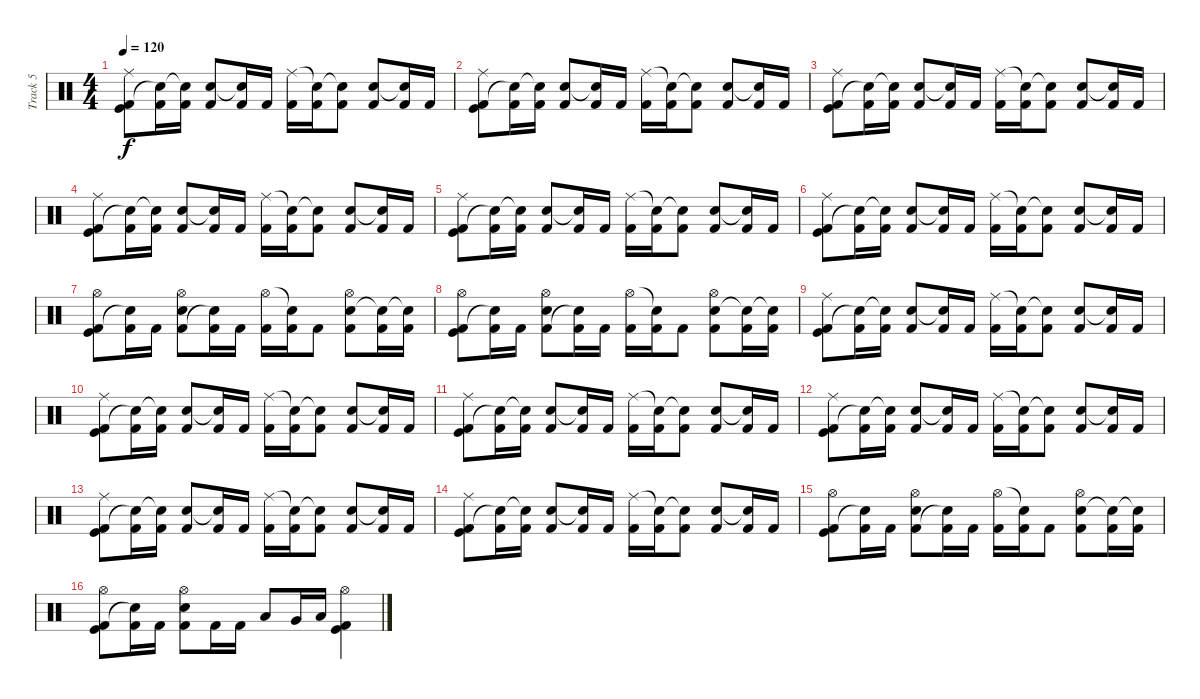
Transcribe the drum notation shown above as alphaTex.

\track ("Track 5" "Track 5") {instrument percussion}
\staff {score}
\articulation defaults
\ts (4 4)
\tempo 120
\clef neutral
\ks c
("Kick (hit)" "Kick (hit) 2" "Ride (middle)").8{dy f} ("Kick (hit) 2" "Snare (hit)"{t}).16 ("Kick (hit) 2" "Snare (hit)"{t}).16 ("Kick (hit) 2" "Snare (hit) 2").8 ("Kick (hit) 2" "Snare (hit)"{t}).16 "Kick (hit) 2".16 ("Kick (hit) 2" "Ride (middle)").16 ("Kick (hit) 2" "Snare (hit)"{t}).16 ("Kick (hit) 2" "Snare (hit)"{t}).8 ("Kick (hit) 2" "Snare (hit) 2").8 ("Kick (hit) 2" "Snare (hit)"{t}).16 "Kick (hit) 2".16 |
("Kick (hit)" "Kick (hit) 2" "Ride (middle)").8 ("Kick (hit) 2" "Snare (hit)"{t}).16 ("Kick (hit) 2" "Snare (hit)"{t}).16 ("Kick (hit) 2" "Snare (hit) 2").8 ("Kick (hit) 2" "Snare (hit)"{t}).16 "Kick (hit) 2".16 ("Kick (hit) 2" "Ride (middle)").16 ("Kick (hit) 2" "Snare (hit)"{t}).16 ("Kick (hit) 2" "Snare (hit)"{t}).8 ("Kick (hit) 2" "Snare (hit) 2").8 ("Kick (hit) 2" "Snare (hit)"{t}).16 "Kick (hit) 2".16 |
("Kick (hit)" "Kick (hit) 2" "Ride (middle)").8 ("Kick (hit) 2" "Snare (hit)"{t}).16 ("Kick (hit) 2" "Snare (hit)"{t}).16 ("Kick (hit) 2" "Snare (hit) 2").8 ("Kick (hit) 2" "Snare (hit)"{t}).16 "Kick (hit) 2".16 ("Kick (hit) 2" "Ride (middle)").16 ("Kick (hit) 2" "Snare (hit)"{t}).16 ("Kick (hit) 2" "Snare (hit)"{t}).8 ("Kick (hit) 2" "Snare (hit) 2").8 ("Kick (hit) 2" "Snare (hit)"{t}).16 "Kick (hit) 2".16 |
("Kick (hit)" "Kick (hit) 2" "Ride (middle)").8 ("Kick (hit) 2" "Snare (hit)"{t}).16 ("Kick (hit) 2" "Snare (hit)"{t}).16 ("Kick (hit) 2" "Snare (hit) 2").8 ("Kick (hit) 2" "Snare (hit)"{t}).16 "Kick (hit) 2".16 ("Kick (hit) 2" "Ride (middle)").16 ("Kick (hit) 2" "Snare (hit)"{t}).16 ("Kick (hit) 2" "Snare (hit)"{t}).8 ("Kick (hit) 2" "Snare (hit) 2").8 ("Kick (hit) 2" "Snare (hit)"{t}).16 "Kick (hit) 2".16 |
("Kick (hit)" "Kick (hit) 2" "Ride (middle)").8 ("Kick (hit) 2" "Snare (hit)"{t}).16 ("Kick (hit) 2" "Snare (hit)"{t}).16 ("Kick (hit) 2" "Snare (hit) 2").8 ("Kick (hit) 2" "Snare (hit)"{t}).16 "Kick (hit) 2".16 ("Kick (hit) 2" "Ride (middle)").16 ("Kick (hit) 2" "Snare (hit)"{t}).16 ("Kick (hit) 2" "Snare (hit)"{t}).8 ("Kick (hit) 2" "Snare (hit) 2").8 ("Kick (hit) 2" "Snare (hit)"{t}).16 "Kick (hit) 2".16 |
("Kick (hit)" "Kick (hit) 2" "Ride (middle)").8 ("Kick (hit) 2" "Snare (hit)"{t}).16 ("Kick (hit) 2" "Snare (hit)"{t}).16 ("Kick (hit) 2" "Snare (hit) 2").8 ("Kick (hit) 2" "Snare (hit)"{t}).16 "Kick (hit) 2".16 ("Kick (hit) 2" "Ride (middle)").16 ("Kick (hit) 2" "Snare (hit)"{t}).16 ("Kick (hit) 2" "Snare (hit)"{t}).8 ("Kick (hit) 2" "Snare (hit) 2").8 ("Kick (hit) 2" "Snare (hit)"{t}).16 "Kick (hit) 2".16 |
("Kick (hit)" "Kick (hit) 2" "Hi-Hat (open)").8 ("Kick (hit) 2" "Snare (hit)"{t}).16 "Kick (hit) 2".16 ("Snare (hit) 2" "Kick (hit) 2" "Hi-Hat (open)").8 ("Kick (hit) 2" "Snare (hit)"{t}).16 "Kick (hit) 2".16 ("Kick (hit) 2" "Hi-Hat (open)").16 ("Kick (hit) 2" "Snare (hit)"{t}).16 "Kick (hit) 2".8 ("Kick (hit) 2" "Snare (hit) 2" "Hi-Hat (open)").8 ("Kick (hit) 2" "Snare (hit)"{t}).16 ("Kick (hit) 2" "Snare (hit)"{t}).16 |
("Kick (hit)" "Kick (hit) 2" "Hi-Hat (open)").8 ("Kick (hit) 2" "Snare (hit)"{t}).16 "Kick (hit) 2".16 ("Snare (hit) 2" "Kick (hit) 2" "Hi-Hat (open)").8 ("Kick (hit) 2" "Snare (hit)"{t}).16 "Kick (hit) 2".16 ("Kick (hit) 2" "Hi-Hat (open)").16 ("Kick (hit) 2" "Snare (hit)"{t}).16 "Kick (hit) 2".8 ("Kick (hit) 2" "Snare (hit) 2" "Hi-Hat (open)").8 ("Kick (hit) 2" "Snare (hit)"{t}).16 ("Kick (hit) 2" "Snare (hit)"{t}).16 |
("Kick (hit)" "Kick (hit) 2" "Ride (middle)").8 ("Kick (hit) 2" "Snare (hit)"{t}).16 ("Kick (hit) 2" "Snare (hit)"{t}).16 ("Kick (hit) 2" "Snare (hit) 2").8 ("Kick (hit) 2" "Snare (hit)"{t}).16 "Kick (hit) 2".16 ("Kick (hit) 2" "Ride (middle)").16 ("Kick (hit) 2" "Snare (hit)"{t}).16 ("Kick (hit) 2" "Snare (hit)"{t}).8 ("Kick (hit) 2" "Snare (hit) 2").8 ("Kick (hit) 2" "Snare (hit)"{t}).16 "Kick (hit) 2".16 |
("Kick (hit)" "Kick (hit) 2" "Ride (middle)").8 ("Kick (hit) 2" "Snare (hit)"{t}).16 ("Kick (hit) 2" "Snare (hit)"{t}).16 ("Kick (hit) 2" "Snare (hit) 2").8 ("Kick (hit) 2" "Snare (hit)"{t}).16 "Kick (hit) 2".16 ("Kick (hit) 2" "Ride (middle)").16 ("Kick (hit) 2" "Snare (hit)"{t}).16 ("Kick (hit) 2" "Snare (hit)"{t}).8 ("Kick (hit) 2" "Snare (hit) 2").8 ("Kick (hit) 2" "Snare (hit)"{t}).16 "Kick (hit) 2".16 |
("Kick (hit)" "Kick (hit) 2" "Ride (middle)").8 ("Kick (hit) 2" "Snare (hit)"{t}).16 ("Kick (hit) 2" "Snare (hit)"{t}).16 ("Kick (hit) 2" "Snare (hit) 2").8 ("Kick (hit) 2" "Snare (hit)"{t}).16 "Kick (hit) 2".16 ("Kick (hit) 2" "Ride (middle)").16 ("Kick (hit) 2" "Snare (hit)"{t}).16 ("Kick (hit) 2" "Snare (hit)"{t}).8 ("Kick (hit) 2" "Snare (hit) 2").8 ("Kick (hit) 2" "Snare (hit)"{t}).16 "Kick (hit) 2".16 |
("Kick (hit)" "Kick (hit) 2" "Ride (middle)").8 ("Kick (hit) 2" "Snare (hit)"{t}).16 ("Kick (hit) 2" "Snare (hit)"{t}).16 ("Kick (hit) 2" "Snare (hit) 2").8 ("Kick (hit) 2" "Snare (hit)"{t}).16 "Kick (hit) 2".16 ("Kick (hit) 2" "Ride (middle)").16 ("Kick (hit) 2" "Snare (hit)"{t}).16 ("Kick (hit) 2" "Snare (hit)"{t}).8 ("Kick (hit) 2" "Snare (hit) 2").8 ("Kick (hit) 2" "Snare (hit)"{t}).16 "Kick (hit) 2".16 |
("Kick (hit)" "Kick (hit) 2" "Ride (middle)").8 ("Kick (hit) 2" "Snare (hit)"{t}).16 ("Kick (hit) 2" "Snare (hit)"{t}).16 ("Kick (hit) 2" "Snare (hit) 2").8 ("Kick (hit) 2" "Snare (hit)"{t}).16 "Kick (hit) 2".16 ("Kick (hit) 2" "Ride (middle)").16 ("Kick (hit) 2" "Snare (hit)"{t}).16 ("Kick (hit) 2" "Snare (hit)"{t}).8 ("Kick (hit) 2" "Snare (hit) 2").8 ("Kick (hit) 2" "Snare (hit)"{t}).16 "Kick (hit) 2".16 |
("Kick (hit)" "Kick (hit) 2" "Ride (middle)").8 ("Kick (hit) 2" "Snare (hit)"{t}).16 ("Kick (hit) 2" "Snare (hit)"{t}).16 ("Kick (hit) 2" "Snare (hit) 2").8 ("Kick (hit) 2" "Snare (hit)"{t}).16 "Kick (hit) 2".16 ("Kick (hit) 2" "Ride (middle)").16 ("Kick (hit) 2" "Snare (hit)"{t}).16 ("Kick (hit) 2" "Snare (hit)"{t}).8 ("Kick (hit) 2" "Snare (hit) 2").8 ("Kick (hit) 2" "Snare (hit)"{t}).16 "Kick (hit) 2".16 |
("Kick (hit)" "Kick (hit) 2" "Hi-Hat (open)").8 ("Kick (hit) 2" "Snare (hit)"{t}).16 "Kick (hit) 2".16 ("Snare (hit) 2" "Kick (hit) 2" "Hi-Hat (open)").8 ("Kick (hit) 2" "Snare (hit)"{t}).16 "Kick (hit) 2".16 ("Kick (hit) 2" "Hi-Hat (open)").16 ("Kick (hit) 2" "Snare (hit)"{t}).16 "Kick (hit) 2".8 ("Kick (hit) 2" "Snare (hit) 2" "Hi-Hat (open)").8 ("Kick (hit) 2" "Snare (hit)"{t}).16 ("Kick (hit) 2" "Snare (hit)"{t}).16 |
("Kick (hit)" "Kick (hit) 2" "Hi-Hat (open)").8 ("Kick (hit) 2" "Snare (hit)"{t}).16 "Kick (hit) 2".16 ("Snare (hit) 2" "Kick (hit) 2" "Hi-Hat (open)").8 "Kick (hit) 2".16 "Kick (hit) 2".16 "Low Floor Tom (hit)".8 "Very Low Tom (hit)".16 "Low Tom (hit)".16 ("Kick (hit) 2" "Kick (hit)" "Hi-Hat (open)").4
